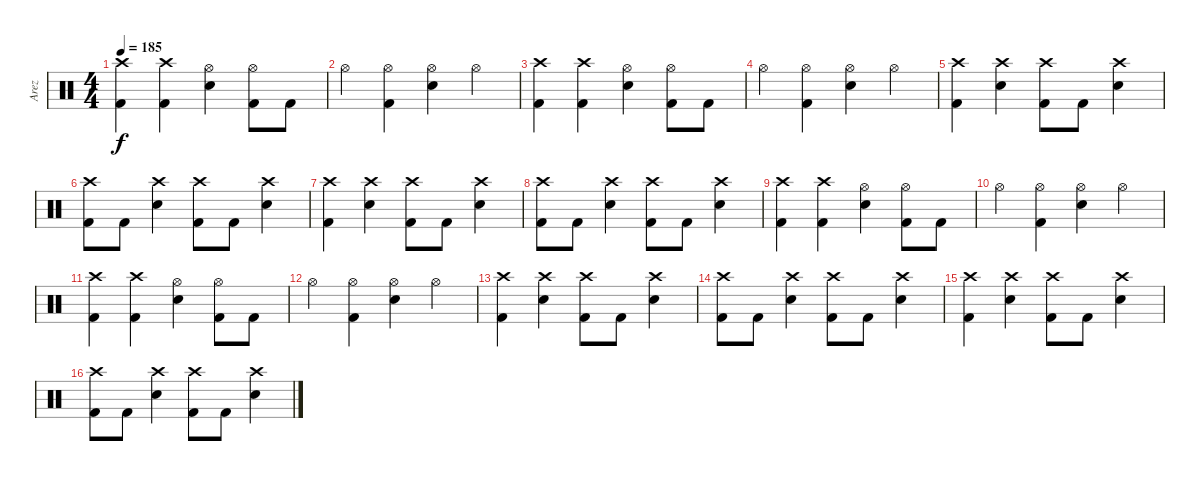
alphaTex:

\track ("Arez" "Arez") {instrument percussion}
\staff {score}
\articulation defaults
\ts (4 4)
\tempo 185
\clef neutral
\ks c
("Crash high (hit)" "Kick (hit) 2").4{dy f} ("Kick (hit) 2" "Crash high (hit)").4 ("Electric Snare (hit)" "Hi-Hat (open)").4 ("Kick (hit) 2" "Hi-Hat (open)").8 "Kick (hit) 2".8 |
"Hi-Hat (open)".4 ("Hi-Hat (open)" "Kick (hit) 2").4 ("Electric Snare (hit)" "Hi-Hat (open)").4 "Hi-Hat (open)".4 |
("Crash high (hit)" "Kick (hit) 2").4 ("Kick (hit) 2" "Crash high (hit)").4 ("Electric Snare (hit)" "Hi-Hat (open)").4 ("Kick (hit) 2" "Hi-Hat (open)").8 "Kick (hit) 2".8 |
"Hi-Hat (open)".4 ("Hi-Hat (open)" "Kick (hit) 2").4 ("Electric Snare (hit)" "Hi-Hat (open)").4 "Hi-Hat (open)".4 |
("Crash high (hit)" "Kick (hit) 2").4 ("Electric Snare (hit)" "Crash high (hit)").4 ("Crash high (hit)" "Kick (hit) 2").8 "Kick (hit) 2".8 ("Electric Snare (hit)" "Crash high (hit)").4 |
("Crash high (hit)" "Kick (hit) 2").8 "Kick (hit) 2".8 ("Electric Snare (hit)" "Crash high (hit)").4 ("Crash high (hit)" "Kick (hit) 2").8 "Kick (hit) 2".8 ("Electric Snare (hit)" "Crash high (hit)").4 |
("Crash high (hit)" "Kick (hit) 2").4 ("Electric Snare (hit)" "Crash high (hit)").4 ("Crash high (hit)" "Kick (hit) 2").8 "Kick (hit) 2".8 ("Electric Snare (hit)" "Crash high (hit)").4 |
("Crash high (hit)" "Kick (hit) 2").8 "Kick (hit) 2".8 ("Electric Snare (hit)" "Crash high (hit)").4 ("Crash high (hit)" "Kick (hit) 2").8 "Kick (hit) 2".8 ("Electric Snare (hit)" "Crash high (hit)").4 |
("Crash high (hit)" "Kick (hit) 2").4 ("Kick (hit) 2" "Crash high (hit)").4 ("Electric Snare (hit)" "Hi-Hat (open)").4 ("Kick (hit) 2" "Hi-Hat (open)").8 "Kick (hit) 2".8 |
"Hi-Hat (open)".4 ("Hi-Hat (open)" "Kick (hit) 2").4 ("Electric Snare (hit)" "Hi-Hat (open)").4 "Hi-Hat (open)".4 |
("Crash high (hit)" "Kick (hit) 2").4 ("Kick (hit) 2" "Crash high (hit)").4 ("Electric Snare (hit)" "Hi-Hat (open)").4 ("Kick (hit) 2" "Hi-Hat (open)").8 "Kick (hit) 2".8 |
"Hi-Hat (open)".4 ("Hi-Hat (open)" "Kick (hit) 2").4 ("Electric Snare (hit)" "Hi-Hat (open)").4 "Hi-Hat (open)".4 |
("Crash high (hit)" "Kick (hit) 2").4 ("Electric Snare (hit)" "Crash high (hit)").4 ("Crash high (hit)" "Kick (hit) 2").8 "Kick (hit) 2".8 ("Electric Snare (hit)" "Crash high (hit)").4 |
("Crash high (hit)" "Kick (hit) 2").8 "Kick (hit) 2".8 ("Electric Snare (hit)" "Crash high (hit)").4 ("Crash high (hit)" "Kick (hit) 2").8 "Kick (hit) 2".8 ("Electric Snare (hit)" "Crash high (hit)").4 |
("Crash high (hit)" "Kick (hit) 2").4 ("Electric Snare (hit)" "Crash high (hit)").4 ("Crash high (hit)" "Kick (hit) 2").8 "Kick (hit) 2".8 ("Electric Snare (hit)" "Crash high (hit)").4 |
("Crash high (hit)" "Kick (hit) 2").8 "Kick (hit) 2".8 ("Electric Snare (hit)" "Crash high (hit)").4 ("Crash high (hit)" "Kick (hit) 2").8 "Kick (hit) 2".8 ("Electric Snare (hit)" "Crash high (hit)").4
